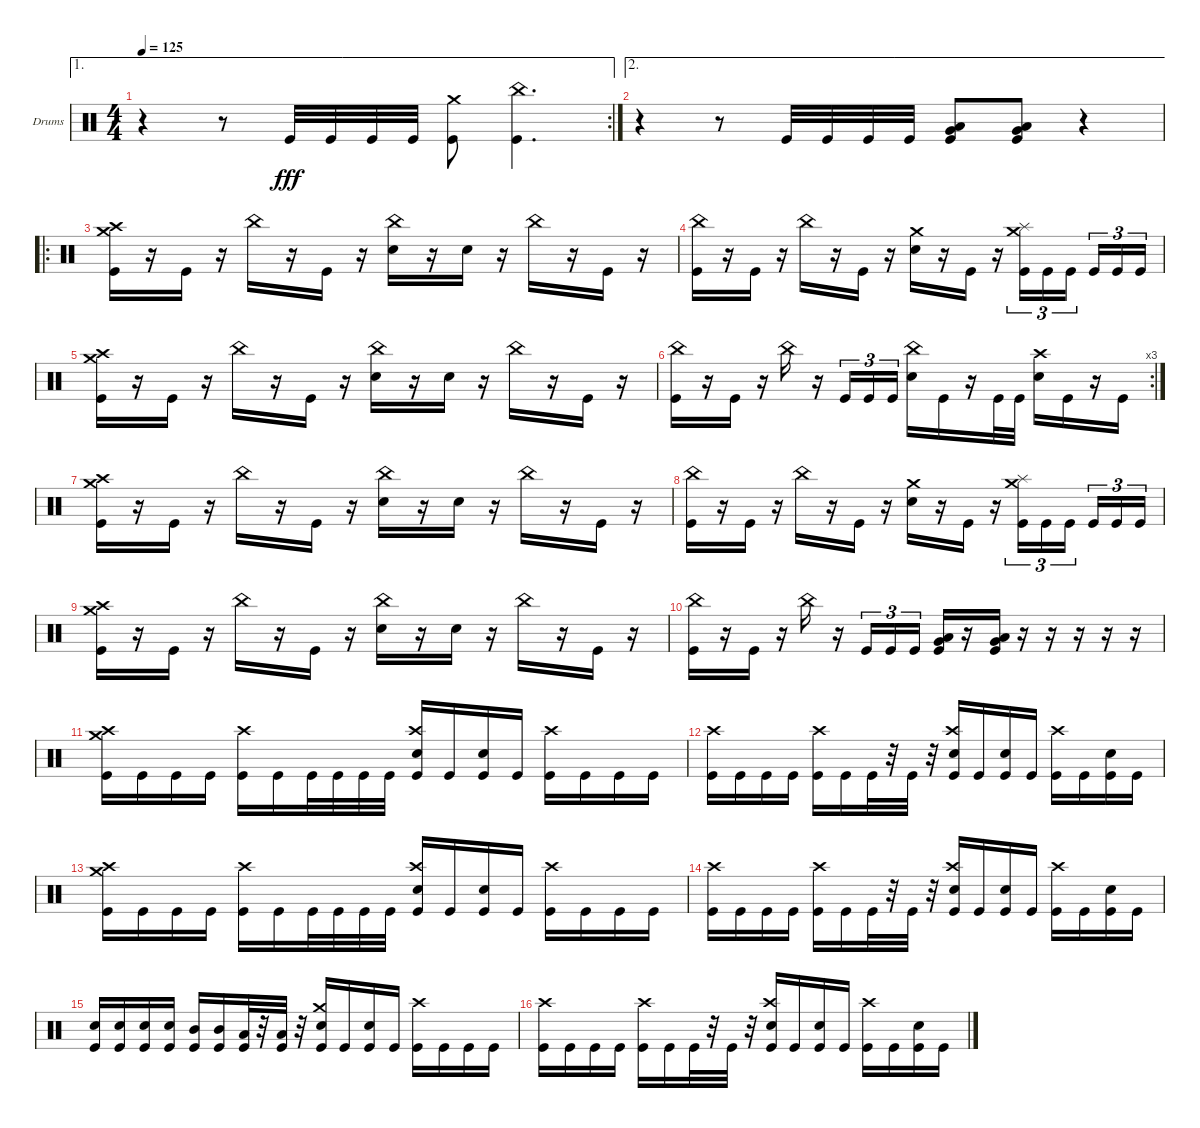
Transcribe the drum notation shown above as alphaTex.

\bracketExtendMode groupsimilarinstruments
\firstSystemTrackNameOrientation horizontal
\otherSystemsTrackNameOrientation horizontal
\track ("Drumkit" "Drums") {instrument percussion}
\staff {score}
\articulation defaults
\ae 1
\rc 2
\ts (4 4)
\tempo 125
\clef neutral
\ks c
r.4{dy fff} r.8 "Kick (hit)".32 "Kick (hit)".32 "Kick (hit)".32 "Kick (hit)".32 ("Kick (hit)" "Crash medium (hit)").8 ("Kick (hit)" "China (hit)").4{d} |
\ae 2
r.4 r.8 "Kick (hit)".32 "Kick (hit)".32 "Kick (hit)".32 "Kick (hit)".32 ("Very Low Tom (hit)" "Low Tom (hit)" "Kick (hit)").8 ("Kick (hit)" "Very Low Tom (hit)" "Low Tom (hit)").8 r.4 |
\ro
("Crash medium (hit)" "Crash high (hit)" "Kick (hit)").16 r.16 "Kick (hit)".16 r.16 "China (hit)".16 r.16 "Kick (hit)".16 r.16 ("China (hit)" "Snare (hit) 2").16 r.16 "Snare (hit) 2".16 r.16 "China (hit)".16 r.16 "Kick (hit)".16 r.16 |
("Kick (hit)" "China (hit)").16 r.16 "Kick (hit)".16 r.16 "China (hit)".16 r.16 "Kick (hit)".16 r.16 ("Crash medium (hit)" "Snare (hit) 2").16 r.16 "Kick (hit)".16 r.16 ("Kick (hit)" "Crash medium (hit)" "Splash (hit)").16{tu (3 2)} "Kick (hit)".16{tu (3 2)} "Kick (hit)".16{tu (3 2)} "Kick (hit)".16{tu (3 2)} "Kick (hit)".16{tu (3 2)} "Kick (hit)".16{tu (3 2)} |
("Crash medium (hit)" "Crash high (hit)" "Kick (hit)").16 r.16 "Kick (hit)".16 r.16 "China (hit)".16 r.16 "Kick (hit)".16 r.16 ("China (hit)" "Snare (hit) 2").16 r.16 "Snare (hit) 2".16 r.16 "China (hit)".16 r.16 "Kick (hit)".16 r.16 |
\rc 3
("Kick (hit)" "China (hit)").16 r.16 "Kick (hit)".16 r.16 "China (hit)".16 r.16 "Kick (hit)".16{tu (3 2)} "Kick (hit)".16{tu (3 2)} "Kick (hit)".16{tu (3 2)} ("Snare (hit) 2" "China (hit)").16 "Kick (hit)".16 r.16 "Kick (hit)".32 "Kick (hit)".32 ("Snare (hit) 2" "Crash high (hit)").16 "Kick (hit)".16 r.16 "Kick (hit)".16 |
("Crash medium (hit)" "Crash high (hit)" "Kick (hit)").16 r.16 "Kick (hit)".16 r.16 "China (hit)".16 r.16 "Kick (hit)".16 r.16 ("China (hit)" "Snare (hit) 2").16 r.16 "Snare (hit) 2".16 r.16 "China (hit)".16 r.16 "Kick (hit)".16 r.16 |
("Kick (hit)" "China (hit)").16 r.16 "Kick (hit)".16 r.16 "China (hit)".16 r.16 "Kick (hit)".16 r.16 ("Crash medium (hit)" "Snare (hit) 2").16 r.16 "Kick (hit)".16 r.16 ("Kick (hit)" "Crash medium (hit)" "Splash (hit)").16{tu (3 2)} "Kick (hit)".16{tu (3 2)} "Kick (hit)".16{tu (3 2)} "Kick (hit)".16{tu (3 2)} "Kick (hit)".16{tu (3 2)} "Kick (hit)".16{tu (3 2)} |
("Crash medium (hit)" "Crash high (hit)" "Kick (hit)").16 r.16 "Kick (hit)".16 r.16 "China (hit)".16 r.16 "Kick (hit)".16 r.16 ("China (hit)" "Snare (hit) 2").16 r.16 "Snare (hit) 2".16 r.16 "China (hit)".16 r.16 "Kick (hit)".16 r.16 |
("Kick (hit)" "China (hit)").16 r.16 "Kick (hit)".16 r.16 "China (hit)".16 r.16 "Kick (hit)".16{tu (3 2)} "Kick (hit)".16{tu (3 2)} "Kick (hit)".16{tu (3 2)} ("Very Low Tom (hit)" "Kick (hit)" "Low Tom (hit)").16 r.16 ("Very Low Tom (hit)" "Kick (hit)" "Low Tom (hit)").16 r.16 r.16 r.16 r.16 r.16 |
("Kick (hit)" "Crash medium (hit)" "Crash high (hit)").16 "Kick (hit)".16 "Kick (hit)".16 "Kick (hit)".16 ("Kick (hit)" "Crash high (hit)").16 "Kick (hit)".16 "Kick (hit)".32 "Kick (hit)".32 "Kick (hit)".32 "Kick (hit)".32 ("Snare (hit) 2" "Kick (hit)" "Crash high (hit)").16 "Kick (hit)".16 ("Kick (hit)" "Snare (hit) 2").16 "Kick (hit)".16 ("Kick (hit)" "Crash high (hit)").16 "Kick (hit)".16 "Kick (hit)".16 "Kick (hit)".16 |
("Kick (hit)" "Crash high (hit)").16 "Kick (hit)".16 "Kick (hit)".16 "Kick (hit)".16 ("Kick (hit)" "Crash high (hit)").16 "Kick (hit)".16 "Kick (hit)".32 r.32 "Kick (hit)".32 r.32 ("Snare (hit) 2" "Kick (hit)" "Crash high (hit)").16 "Kick (hit)".16 ("Kick (hit)" "Snare (hit) 2").16 "Kick (hit)".16 ("Kick (hit)" "Crash high (hit)").16 "Kick (hit)".16 ("Kick (hit)" "Snare (hit) 2").16 "Kick (hit)".16 |
("Kick (hit)" "Crash medium (hit)" "Crash high (hit)").16 "Kick (hit)".16 "Kick (hit)".16 "Kick (hit)".16 ("Kick (hit)" "Crash high (hit)").16 "Kick (hit)".16 "Kick (hit)".32 "Kick (hit)".32 "Kick (hit)".32 "Kick (hit)".32 ("Snare (hit) 2" "Kick (hit)" "Crash high (hit)").16 "Kick (hit)".16 ("Kick (hit)" "Snare (hit) 2").16 "Kick (hit)".16 ("Kick (hit)" "Crash high (hit)").16 "Kick (hit)".16 "Kick (hit)".16 "Kick (hit)".16 |
("Kick (hit)" "Crash high (hit)").16 "Kick (hit)".16 "Kick (hit)".16 "Kick (hit)".16 ("Kick (hit)" "Crash high (hit)").16 "Kick (hit)".16 "Kick (hit)".32 r.32 "Kick (hit)".32 r.32 ("Snare (hit) 2" "Kick (hit)" "Crash high (hit)").16 "Kick (hit)".16 ("Kick (hit)" "Snare (hit) 2").16 "Kick (hit)".16 ("Kick (hit)" "Crash high (hit)").16 "Kick (hit)".16 ("Kick (hit)" "Snare (hit) 2").16 "Kick (hit)".16 |
("Kick (hit)" "Snare (hit) 2").16 ("Kick (hit)" "Snare (hit) 2").16 ("Kick (hit)" "Snare (hit) 2").16 ("Kick (hit)" "Snare (hit) 2").16 ("Kick (hit)" "Mid Tom (hit)").16 ("Kick (hit)" "Mid Tom (hit)").16 ("Kick (hit)" "Low Tom (hit)").32 r.32 ("Kick (hit)" "Low Tom (hit)").32 r.32 ("Snare (hit) 2" "Kick (hit)" "Crash medium (hit)").16 "Kick (hit)".16 ("Kick (hit)" "Snare (hit) 2").16 "Kick (hit)".16 ("Kick (hit)" "Crash high (hit)").16 "Kick (hit)".16 "Kick (hit)".16 "Kick (hit)".16 |
("Kick (hit)" "Crash high (hit)").16 "Kick (hit)".16 "Kick (hit)".16 "Kick (hit)".16 ("Kick (hit)" "Crash high (hit)").16 "Kick (hit)".16 "Kick (hit)".32 r.32 "Kick (hit)".32 r.32 ("Snare (hit) 2" "Kick (hit)" "Crash high (hit)").16 "Kick (hit)".16 ("Kick (hit)" "Snare (hit) 2").16 "Kick (hit)".16 ("Kick (hit)" "Crash high (hit)").16 "Kick (hit)".16 ("Kick (hit)" "Snare (hit) 2").16 "Kick (hit)".16
